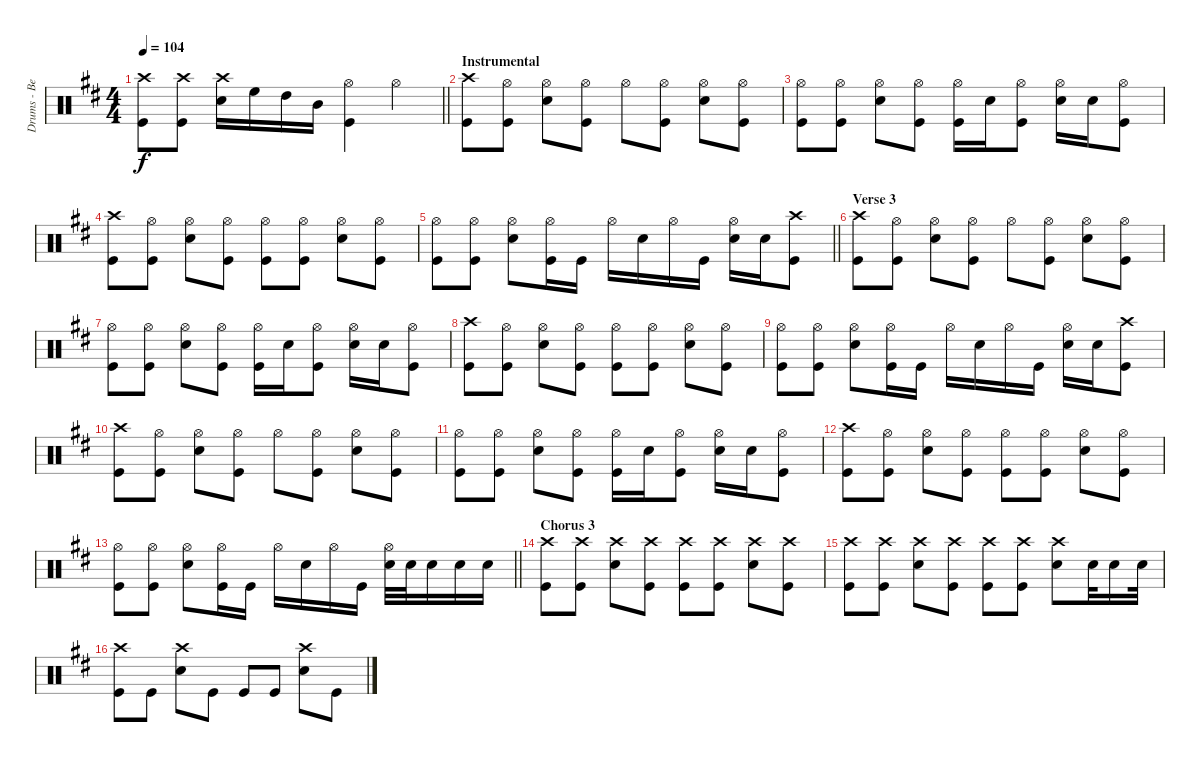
\track ("Drums - Ben Johnston" "Drums - Be") {instrument percussion}
\staff {score}
\articulation defaults
\ts (4 4)
\tempo 104
\clef neutral
\barLineRight lightlight
\ks d
("Crash high (hit)" "Kick (hit)").8{dy f} ("Crash high (hit)" "Kick (hit)").8 ("Crash high (hit)" "Snare (hit) 2").16 "High Floor Tom (hit)".16 "High Tom (hit)".16 "Mid Tom (hit)".16 ("Hi-Hat (open)" "Kick (hit)").4 "Hi-Hat (open)".4 |
\section ("" "Instrumental")
("Crash high (hit)" "Kick (hit)").8 ("Hi-Hat (open)" "Kick (hit)").8 ("Hi-Hat (open)" "Snare (hit) 2").8 ("Hi-Hat (open)" "Kick (hit)").8 "Hi-Hat (open)".8 ("Hi-Hat (open)" "Kick (hit)").8 ("Hi-Hat (open)" "Snare (hit) 2").8 ("Hi-Hat (open)" "Kick (hit)").8 |
("Hi-Hat (open)" "Kick (hit)").8 ("Hi-Hat (open)" "Kick (hit)").8 ("Hi-Hat (open)" "Snare (hit) 2").8 ("Hi-Hat (open)" "Kick (hit)").8 ("Hi-Hat (open)" "Kick (hit)").16 "Snare (hit) 2".16 ("Hi-Hat (open)" "Kick (hit)").8 ("Hi-Hat (open)" "Snare (hit) 2").16 "Snare (hit) 2".16 ("Hi-Hat (open)" "Kick (hit)").8 |
("Crash high (hit)" "Kick (hit)").8 ("Hi-Hat (open)" "Kick (hit)").8 ("Hi-Hat (open)" "Snare (hit) 2").8 ("Hi-Hat (open)" "Kick (hit)").8 ("Hi-Hat (open)" "Kick (hit)").8 ("Hi-Hat (open)" "Kick (hit)").8 ("Hi-Hat (open)" "Snare (hit) 2").8 ("Hi-Hat (open)" "Kick (hit)").8 |
\barLineRight lightlight
("Hi-Hat (open)" "Kick (hit)").8 ("Hi-Hat (open)" "Kick (hit)").8 ("Hi-Hat (open)" "Snare (hit) 2").8 ("Hi-Hat (open)" "Kick (hit)").16 "Kick (hit)".16 "Hi-Hat (open)".16 "Snare (hit) 2".16 "Hi-Hat (open)".16 "Kick (hit)".16 ("Hi-Hat (open)" "Snare (hit) 2").16 "Snare (hit) 2".16 ("Crash high (hit)" "Kick (hit)").8 |
\section ("" "Verse 3")
("Crash high (hit)" "Kick (hit)").8 ("Hi-Hat (open)" "Kick (hit)").8 ("Hi-Hat (open)" "Snare (hit) 2").8 ("Hi-Hat (open)" "Kick (hit)").8 "Hi-Hat (open)".8 ("Hi-Hat (open)" "Kick (hit)").8 ("Hi-Hat (open)" "Snare (hit) 2").8 ("Hi-Hat (open)" "Kick (hit)").8 |
("Hi-Hat (open)" "Kick (hit)").8 ("Hi-Hat (open)" "Kick (hit)").8 ("Hi-Hat (open)" "Snare (hit) 2").8 ("Hi-Hat (open)" "Kick (hit)").8 ("Hi-Hat (open)" "Kick (hit)").16 "Snare (hit) 2".16 ("Hi-Hat (open)" "Kick (hit)").8 ("Hi-Hat (open)" "Snare (hit) 2").16 "Snare (hit) 2".16 ("Hi-Hat (open)" "Kick (hit)").8 |
("Crash high (hit)" "Kick (hit)").8 ("Hi-Hat (open)" "Kick (hit)").8 ("Hi-Hat (open)" "Snare (hit) 2").8 ("Hi-Hat (open)" "Kick (hit)").8 ("Hi-Hat (open)" "Kick (hit)").8 ("Hi-Hat (open)" "Kick (hit)").8 ("Hi-Hat (open)" "Snare (hit) 2").8 ("Hi-Hat (open)" "Kick (hit)").8 |
("Hi-Hat (open)" "Kick (hit)").8 ("Hi-Hat (open)" "Kick (hit)").8 ("Hi-Hat (open)" "Snare (hit) 2").8 ("Hi-Hat (open)" "Kick (hit)").16 "Kick (hit)".16 "Hi-Hat (open)".16 "Snare (hit) 2".16 "Hi-Hat (open)".16 "Kick (hit)".16 ("Hi-Hat (open)" "Snare (hit) 2").16 "Snare (hit) 2".16 ("Crash high (hit)" "Kick (hit)").8 |
("Crash high (hit)" "Kick (hit)").8 ("Hi-Hat (open)" "Kick (hit)").8 ("Hi-Hat (open)" "Snare (hit) 2").8 ("Hi-Hat (open)" "Kick (hit)").8 "Hi-Hat (open)".8 ("Hi-Hat (open)" "Kick (hit)").8 ("Hi-Hat (open)" "Snare (hit) 2").8 ("Hi-Hat (open)" "Kick (hit)").8 |
("Hi-Hat (open)" "Kick (hit)").8 ("Hi-Hat (open)" "Kick (hit)").8 ("Hi-Hat (open)" "Snare (hit) 2").8 ("Hi-Hat (open)" "Kick (hit)").8 ("Hi-Hat (open)" "Kick (hit)").16 "Snare (hit) 2".16 ("Hi-Hat (open)" "Kick (hit)").8 ("Hi-Hat (open)" "Snare (hit) 2").16 "Snare (hit) 2".16 ("Hi-Hat (open)" "Kick (hit)").8 |
("Crash high (hit)" "Kick (hit)").8 ("Hi-Hat (open)" "Kick (hit)").8 ("Hi-Hat (open)" "Snare (hit) 2").8 ("Hi-Hat (open)" "Kick (hit)").8 ("Hi-Hat (open)" "Kick (hit)").8 ("Hi-Hat (open)" "Kick (hit)").8 ("Hi-Hat (open)" "Snare (hit) 2").8 ("Hi-Hat (open)" "Kick (hit)").8 |
\barLineRight lightlight
("Hi-Hat (open)" "Kick (hit)").8 ("Hi-Hat (open)" "Kick (hit)").8 ("Hi-Hat (open)" "Snare (hit) 2").8 ("Hi-Hat (open)" "Kick (hit)").16 "Kick (hit)".16 "Hi-Hat (open)".16 "Snare (hit) 2".16 "Hi-Hat (open)".16 "Kick (hit)".16 ("Hi-Hat (open)" "Snare (hit) 2").32 "Snare (hit) 2".32 "Snare (hit) 2".16 "Snare (hit) 2".16 "Snare (hit) 2".16 |
\section ("" "Chorus 3")
("Crash high (hit)" "Kick (hit)").8 ("Crash high (hit)" "Kick (hit)").8 ("Crash high (hit)" "Snare (hit) 2").8 ("Crash high (hit)" "Kick (hit)").8 ("Crash high (hit)" "Kick (hit)").8 ("Crash high (hit)" "Kick (hit)").8 ("Crash high (hit)" "Snare (hit) 2").8 ("Crash high (hit)" "Kick (hit)").8 |
("Crash high (hit)" "Kick (hit)").8 ("Crash high (hit)" "Kick (hit)").8 ("Crash high (hit)" "Snare (hit) 2").8 ("Crash high (hit)" "Kick (hit)").8 ("Crash high (hit)" "Kick (hit)").8 ("Crash high (hit)" "Kick (hit)").8 ("Crash high (hit)" "Snare (hit) 2").8 "Snare (hit) 2".32 "Snare (hit) 2".16 "Snare (hit) 2".32 |
("Crash high (hit)" "Kick (hit)").8 "Kick (hit)".8 ("Crash high (hit)" "Snare (hit) 2").8 "Kick (hit)".8 "Kick (hit)".8 "Kick (hit)".8 ("Crash high (hit)" "Snare (hit) 2").8 "Kick (hit)".8
